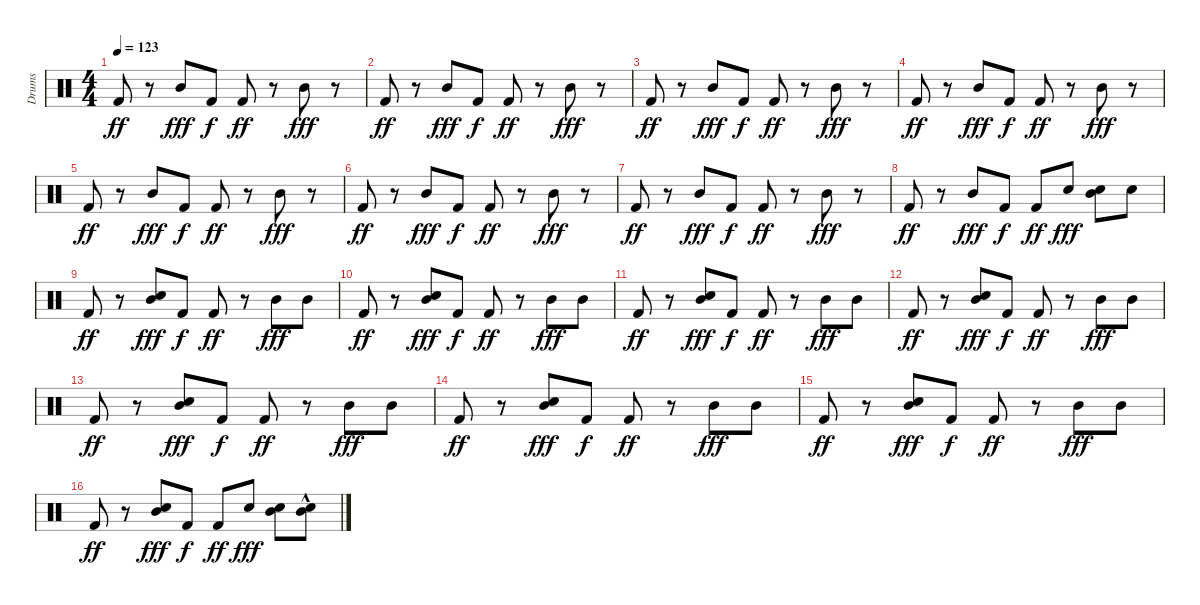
\track ("Drums" "Drums") {instrument percussion}
\staff {score}
\articulation defaults
\ts (4 4)
\tempo 123
\clef neutral
\ks c "Kick (hit) 2".8{dy ff}
r.8 "Mid Tom (hit)".8{dy fff} "Kick (hit) 2".8{dy f} "Kick (hit) 2".8{dy ff} r.8 "Mid Tom (hit)".8{dy fff} r.8 |
"Kick (hit) 2".8{dy ff} r.8 "Mid Tom (hit)".8{dy fff} "Kick (hit) 2".8{dy f} "Kick (hit) 2".8{dy ff} r.8 "Mid Tom (hit)".8{dy fff} r.8 |
"Kick (hit) 2".8{dy ff} r.8 "Mid Tom (hit)".8{dy fff} "Kick (hit) 2".8{dy f} "Kick (hit) 2".8{dy ff} r.8 "Mid Tom (hit)".8{dy fff} r.8 |
"Kick (hit) 2".8{dy ff} r.8 "Mid Tom (hit)".8{dy fff} "Kick (hit) 2".8{dy f} "Kick (hit) 2".8{dy ff} r.8 "Mid Tom (hit)".8{dy fff} r.8 |
"Kick (hit) 2".8{dy ff} r.8 "Mid Tom (hit)".8{dy fff} "Kick (hit) 2".8{dy f} "Kick (hit) 2".8{dy ff} r.8 "Mid Tom (hit)".8{dy fff} r.8 |
"Kick (hit) 2".8{dy ff} r.8 "Mid Tom (hit)".8{dy fff} "Kick (hit) 2".8{dy f} "Kick (hit) 2".8{dy ff} r.8 "Mid Tom (hit)".8{dy fff} r.8 |
"Kick (hit) 2".8{dy ff} r.8 "Mid Tom (hit)".8{dy fff} "Kick (hit) 2".8{dy f} "Kick (hit) 2".8{dy ff} r.8 "Mid Tom (hit)".8{dy fff} r.8 |
"Kick (hit) 2".8{dy ff} r.8 "Mid Tom (hit)".8{dy fff} "Kick (hit) 2".8{dy f} "Kick (hit) 2".8{dy ff} "Electric Snare (hit)".8{dy fff} ("Electric Snare (hit)" "Mid Tom (hit)").8 "Electric Snare (hit)".8 |
"Kick (hit) 2".8{dy ff} r.8 ("Electric Snare (hit)" "Mid Tom (hit)").8{dy fff} "Kick (hit) 2".8{dy f} "Kick (hit) 2".8{dy ff} r.8 "Mid Tom (hit)".8{dy fff} "Mid Tom (hit)".8 |
"Kick (hit) 2".8{dy ff} r.8 ("Electric Snare (hit)" "Mid Tom (hit)").8{dy fff} "Kick (hit) 2".8{dy f} "Kick (hit) 2".8{dy ff} r.8 "Mid Tom (hit)".8{dy fff} "Mid Tom (hit)".8 |
"Kick (hit) 2".8{dy ff} r.8 ("Electric Snare (hit)" "Mid Tom (hit)").8{dy fff} "Kick (hit) 2".8{dy f} "Kick (hit) 2".8{dy ff} r.8 "Mid Tom (hit)".8{dy fff} "Mid Tom (hit)".8 |
"Kick (hit) 2".8{dy ff} r.8 ("Electric Snare (hit)" "Mid Tom (hit)").8{dy fff} "Kick (hit) 2".8{dy f} "Kick (hit) 2".8{dy ff} r.8 "Mid Tom (hit)".8{dy fff} "Mid Tom (hit)".8 |
"Kick (hit) 2".8{dy ff} r.8 ("Electric Snare (hit)" "Mid Tom (hit)").8{dy fff} "Kick (hit) 2".8{dy f} "Kick (hit) 2".8{dy ff} r.8 "Mid Tom (hit)".8{dy fff} "Mid Tom (hit)".8 |
"Kick (hit) 2".8{dy ff} r.8 ("Electric Snare (hit)" "Mid Tom (hit)").8{dy fff} "Kick (hit) 2".8{dy f} "Kick (hit) 2".8{dy ff} r.8 "Mid Tom (hit)".8{dy fff} "Mid Tom (hit)".8 |
"Kick (hit) 2".8{dy ff} r.8 ("Electric Snare (hit)" "Mid Tom (hit)").8{dy fff} "Kick (hit) 2".8{dy f} "Kick (hit) 2".8{dy ff} r.8 "Mid Tom (hit)".8{dy fff} "Mid Tom (hit)".8 |
"Kick (hit) 2".8{dy ff} r.8 ("Electric Snare (hit)" "Mid Tom (hit)").8{dy fff} "Kick (hit) 2".8{dy f} "Kick (hit) 2".8{dy ff} "Electric Snare (hit)".8{dy fff} ("Electric Snare (hit)" "Mid Tom (hit)").8 ("Electric Snare (hit)"{hac} "Mid Tom (hit)").8
